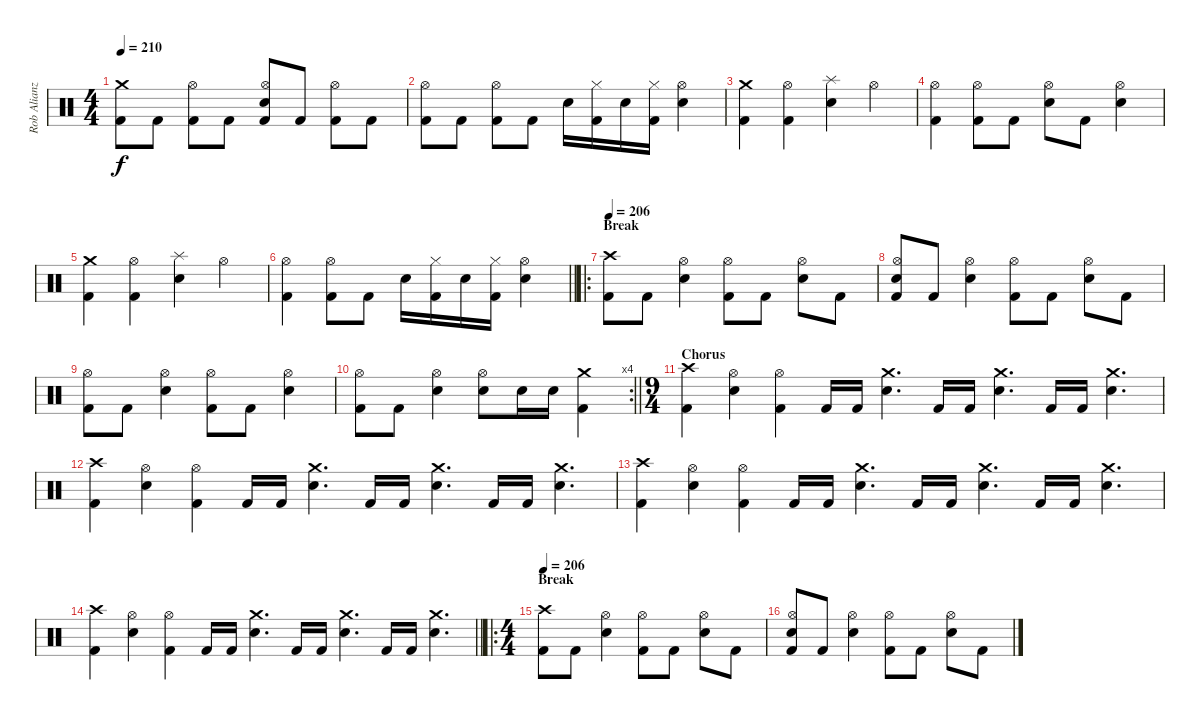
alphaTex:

\track ("Rob Alianz" "Rob Alianz") {instrument percussion}
\staff {score}
\articulation defaults
\ts (4 4)
\tempo 210
\clef neutral
\ks c
("Crash medium (hit)" "Kick (hit) 2").8{dy f} "Kick (hit) 2".8 ("Hi-Hat (open)" "Kick (hit) 2").8 "Kick (hit) 2".8 ("Hi-Hat (open)" "Electric Snare (hit)" "Kick (hit) 2").8 "Kick (hit) 2".8 ("Hi-Hat (open)" "Kick (hit) 2").8 "Kick (hit) 2".8 |
("Hi-Hat (open)" "Kick (hit) 2").8 "Kick (hit) 2".8 ("Hi-Hat (open)" "Kick (hit) 2").8 "Kick (hit) 2".8 "Electric Snare (hit)".16 ("Hi-Hat (closed)" "Kick (hit) 2").16 "Electric Snare (hit)".16 ("Hi-Hat (closed)" "Kick (hit) 2").16 ("Hi-Hat (open)" "Electric Snare (hit)").4 |
("Crash medium (hit)" "Kick (hit) 2").4 ("Hi-Hat (open)" "Kick (hit) 2").4 ("Splash (hit)" "Electric Snare (hit)").4 "Hi-Hat (open)".4 |
("Hi-Hat (open)" "Kick (hit) 2").4 ("Hi-Hat (open)" "Kick (hit) 2").8 "Kick (hit) 2".8 ("Hi-Hat (open)" "Electric Snare (hit)").8 "Kick (hit) 2".8 ("Hi-Hat (open)" "Electric Snare (hit)").4 |
("Crash medium (hit)" "Kick (hit) 2").4 ("Hi-Hat (open)" "Kick (hit) 2").4 ("Splash (hit)" "Electric Snare (hit)").4 "Hi-Hat (open)".4 |
\barLineRight lightlight
("Hi-Hat (open)" "Kick (hit) 2").4 ("Hi-Hat (open)" "Kick (hit) 2").8 "Kick (hit) 2".8 "Electric Snare (hit)".16 ("Hi-Hat (closed)" "Kick (hit) 2").16 "Electric Snare (hit)".16 ("Hi-Hat (closed)" "Kick (hit) 2").16 ("Hi-Hat (open)" "Electric Snare (hit)").4 |
\ro
\section ("" "Break")
\tempo 206
("Crash high (hit)" "Kick (hit) 2").8 "Kick (hit) 2".8 ("Hi-Hat (open)" "Electric Snare (hit)").4 ("Hi-Hat (open)" "Kick (hit) 2").8 "Kick (hit) 2".8 ("Hi-Hat (open)" "Electric Snare (hit)").8 "Kick (hit) 2".8 |
("Hi-Hat (open)" "Electric Snare (hit)" "Kick (hit) 2").8 "Kick (hit) 2".8 ("Hi-Hat (open)" "Electric Snare (hit)").4 ("Hi-Hat (open)" "Kick (hit) 2").8 "Kick (hit) 2".8 ("Hi-Hat (open)" "Electric Snare (hit)").8 "Kick (hit) 2".8 |
("Hi-Hat (open)" "Kick (hit) 2").8 "Kick (hit) 2".8 ("Hi-Hat (open)" "Electric Snare (hit)").4 ("Hi-Hat (open)" "Kick (hit) 2").8 "Kick (hit) 2".8 ("Hi-Hat (open)" "Electric Snare (hit)").4 |
\rc 4
\barLineRight lightlight
("Hi-Hat (open)" "Kick (hit) 2").8 "Kick (hit) 2".8 ("Hi-Hat (open)" "Electric Snare (hit)").4 ("Hi-Hat (open)" "Electric Snare (hit)").8 "Electric Snare (hit)".16 "Electric Snare (hit)".16 ("Crash medium (hit)" "Kick (hit) 2").4 |
\ts (9 4)
\section ("" "Chorus")
("Crash high (hit)" "Kick (hit) 2").4 ("Hi-Hat (open)" "Electric Snare (hit)").4 ("Hi-Hat (open)" "Kick (hit) 2").4 "Kick (hit) 2".16 "Kick (hit) 2".16 ("Crash medium (hit)" "Electric Snare (hit)").4{d} "Kick (hit) 2".16 "Kick (hit) 2".16 ("Crash medium (hit)" "Electric Snare (hit)").4{d} "Kick (hit) 2".16 "Kick (hit) 2".16 ("Crash medium (hit)" "Electric Snare (hit)").4{d} |
("Crash high (hit)" "Kick (hit) 2").4 ("Hi-Hat (open)" "Electric Snare (hit)").4 ("Hi-Hat (open)" "Kick (hit) 2").4 "Kick (hit) 2".16 "Kick (hit) 2".16 ("Crash medium (hit)" "Electric Snare (hit)").4{d} "Kick (hit) 2".16 "Kick (hit) 2".16 ("Crash medium (hit)" "Electric Snare (hit)").4{d} "Kick (hit) 2".16 "Kick (hit) 2".16 ("Crash medium (hit)" "Electric Snare (hit)").4{d} |
("Crash high (hit)" "Kick (hit) 2").4 ("Hi-Hat (open)" "Electric Snare (hit)").4 ("Hi-Hat (open)" "Kick (hit) 2").4 "Kick (hit) 2".16 "Kick (hit) 2".16 ("Crash medium (hit)" "Electric Snare (hit)").4{d} "Kick (hit) 2".16 "Kick (hit) 2".16 ("Crash medium (hit)" "Electric Snare (hit)").4{d} "Kick (hit) 2".16 "Kick (hit) 2".16 ("Crash medium (hit)" "Electric Snare (hit)").4{d} |
\barLineRight lightlight
("Crash high (hit)" "Kick (hit) 2").4 ("Hi-Hat (open)" "Electric Snare (hit)").4 ("Hi-Hat (open)" "Kick (hit) 2").4 "Kick (hit) 2".16 "Kick (hit) 2".16 ("Crash medium (hit)" "Electric Snare (hit)").4{d} "Kick (hit) 2".16 "Kick (hit) 2".16 ("Crash medium (hit)" "Electric Snare (hit)").4{d} "Kick (hit) 2".16 "Kick (hit) 2".16 ("Crash medium (hit)" "Electric Snare (hit)").4{d} |
\ro
\ts (4 4)
\section ("" "Break")
\tempo 206
("Crash high (hit)" "Kick (hit) 2").8 "Kick (hit) 2".8 ("Hi-Hat (open)" "Electric Snare (hit)").4 ("Hi-Hat (open)" "Kick (hit) 2").8 "Kick (hit) 2".8 ("Hi-Hat (open)" "Electric Snare (hit)").8 "Kick (hit) 2".8 |
("Hi-Hat (open)" "Electric Snare (hit)" "Kick (hit) 2").8 "Kick (hit) 2".8 ("Hi-Hat (open)" "Electric Snare (hit)").4 ("Hi-Hat (open)" "Kick (hit) 2").8 "Kick (hit) 2".8 ("Hi-Hat (open)" "Electric Snare (hit)").8 "Kick (hit) 2".8
